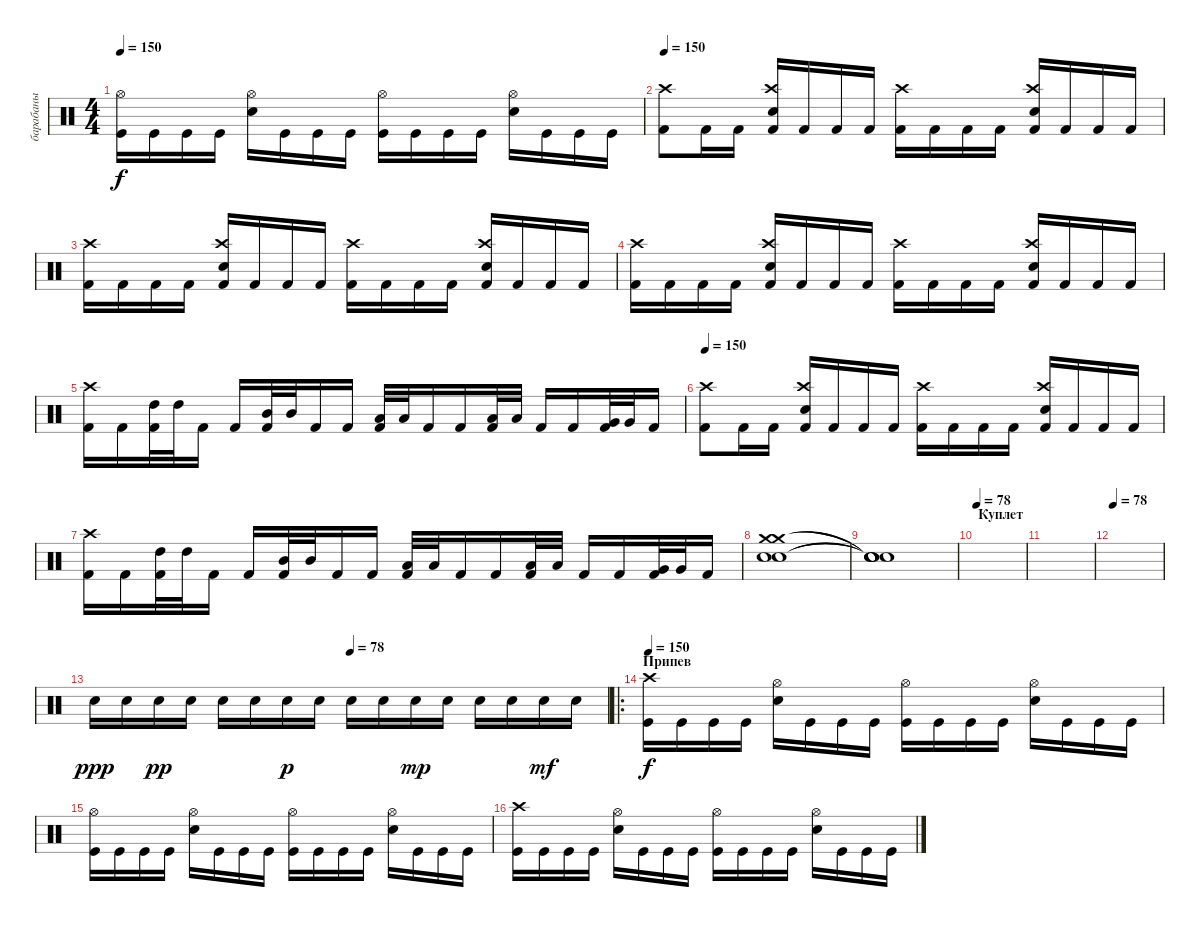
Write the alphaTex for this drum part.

\track ("барабаны" "барабаны") {instrument percussion}
\staff {score}
\articulation defaults
\ts (4 4)
\tempo 150
\clef neutral
\ks c
("Hi-Hat (open)" "Kick (hit)").16{dy f} "Kick (hit)".16 "Kick (hit)".16 "Kick (hit)".16 ("Hi-Hat (open)" "Electric Snare (hit)").16 "Kick (hit)".16 "Kick (hit)".16 "Kick (hit)".16 ("Hi-Hat (open)" "Kick (hit)").16 "Kick (hit)".16 "Kick (hit)".16 "Kick (hit)".16 ("Hi-Hat (open)" "Electric Snare (hit)").16 "Kick (hit)".16 "Kick (hit)".16 "Kick (hit)".16 |
\tempo 150
("Crash high (hit)" "Kick (hit) 2").8 "Kick (hit) 2".16 "Kick (hit) 2".16 ("Crash high (hit)" "Electric Snare (hit)" "Kick (hit) 2").16 "Kick (hit) 2".16 "Kick (hit) 2".16 "Kick (hit) 2".16 ("Crash high (hit)" "Kick (hit) 2").16 "Kick (hit) 2".16 "Kick (hit) 2".16 "Kick (hit) 2".16 ("Crash high (hit)" "Electric Snare (hit)" "Kick (hit) 2").16 "Kick (hit) 2".16 "Kick (hit) 2".16 "Kick (hit) 2".16 |
("Crash high (hit)" "Kick (hit) 2").16 "Kick (hit) 2".16 "Kick (hit) 2".16 "Kick (hit) 2".16 ("Crash high (hit)" "Electric Snare (hit)" "Kick (hit) 2").16 "Kick (hit) 2".16 "Kick (hit) 2".16 "Kick (hit) 2".16 ("Crash high (hit)" "Kick (hit) 2").16 "Kick (hit) 2".16 "Kick (hit) 2".16 "Kick (hit) 2".16 ("Crash high (hit)" "Electric Snare (hit)" "Kick (hit) 2").16 "Kick (hit) 2".16 "Kick (hit) 2".16 "Kick (hit) 2".16 |
("Crash high (hit)" "Kick (hit) 2").16 "Kick (hit) 2".16 "Kick (hit) 2".16 "Kick (hit) 2".16 ("Crash high (hit)" "Electric Snare (hit)" "Kick (hit) 2").16 "Kick (hit) 2".16 "Kick (hit) 2".16 "Kick (hit) 2".16 ("Crash high (hit)" "Kick (hit) 2").16 "Kick (hit) 2".16 "Kick (hit) 2".16 "Kick (hit) 2".16 ("Crash high (hit)" "Electric Snare (hit)" "Kick (hit) 2").16 "Kick (hit) 2".16 "Kick (hit) 2".16 "Kick (hit) 2".16 |
("Crash high (hit)" "Kick (hit) 2").16 "Kick (hit) 2".16 ("High Tom (hit)" "Kick (hit) 2").32 "High Tom (hit)".32 "Kick (hit) 2".16 "Kick (hit) 2".16 ("Mid Tom (hit)" "Kick (hit) 2").32 "Mid Tom (hit)".32 "Kick (hit) 2".16 "Kick (hit) 2".16 ("Low Tom (hit)" "Kick (hit) 2").32 "Low Tom (hit)".32 "Kick (hit) 2".16 "Kick (hit) 2".16 ("Low Tom (hit)" "Kick (hit) 2").32 "Low Tom (hit)".32 "Kick (hit) 2".16 "Kick (hit) 2".16 ("Very Low Tom (hit)" "Kick (hit) 2").32 "Very Low Tom (hit)".32 "Kick (hit) 2".16 |
\tempo 150
("Crash high (hit)" "Kick (hit) 2").8 "Kick (hit) 2".16 "Kick (hit) 2".16 ("Crash high (hit)" "Electric Snare (hit)" "Kick (hit) 2").16 "Kick (hit) 2".16 "Kick (hit) 2".16 "Kick (hit) 2".16 ("Crash high (hit)" "Kick (hit) 2").16 "Kick (hit) 2".16 "Kick (hit) 2".16 "Kick (hit) 2".16 ("Crash high (hit)" "Electric Snare (hit)" "Kick (hit) 2").16 "Kick (hit) 2".16 "Kick (hit) 2".16 "Kick (hit) 2".16 |
("Crash high (hit)" "Kick (hit) 2").16 "Kick (hit) 2".16 ("High Tom (hit)" "Kick (hit) 2").32 "High Tom (hit)".32 "Kick (hit) 2".16 "Kick (hit) 2".16 ("Mid Tom (hit)" "Kick (hit) 2").32 "Mid Tom (hit)".32 "Kick (hit) 2".16 "Kick (hit) 2".16 ("Low Tom (hit)" "Kick (hit) 2").32 "Low Tom (hit)".32 "Kick (hit) 2".16 "Kick (hit) 2".16 ("Low Tom (hit)" "Kick (hit) 2").32 "Low Tom (hit)".32 "Kick (hit) 2".16 "Kick (hit) 2".16 ("Very Low Tom (hit)" "Kick (hit) 2").32 "Very Low Tom (hit)".32 "Kick (hit) 2".16 |
("Snare (hit) 2" "Snare (hit) 2" "Crash medium (hit)" "Crash medium (hit)").1 |
("Snare (hit)"{t} "Snare (hit)"{t} "Snare (hit)"{t} "Snare (hit)"{t}).1 |
\section ("" "Куплет")
\tempo 78
|
|
\tempo 78
|
\tempo (78 0.5)
"Snare (hit) 2".16{dy ppp} "Snare (hit) 2".16 "Snare (hit) 2".16{dy pp} "Snare (hit) 2".16 "Snare (hit) 2".16 "Snare (hit) 2".16 "Snare (hit) 2".16{dy p} "Snare (hit) 2".16 "Snare (hit) 2".16 "Snare (hit) 2".16 "Snare (hit) 2".16{dy mp} "Snare (hit) 2".16 "Snare (hit) 2".16 "Snare (hit) 2".16 "Snare (hit) 2".16{dy mf} "Snare (hit) 2".16 |
\ro
\section ("" "Припев")
\tempo 150
("Crash high (hit)" "Kick (hit)").16{dy f} "Kick (hit)".16 "Kick (hit)".16 "Kick (hit)".16 ("Hi-Hat (open)" "Electric Snare (hit)").16 "Kick (hit)".16 "Kick (hit)".16 "Kick (hit)".16 ("Hi-Hat (open)" "Kick (hit)").16 "Kick (hit)".16 "Kick (hit)".16 "Kick (hit)".16 ("Hi-Hat (open)" "Electric Snare (hit)").16 "Kick (hit)".16 "Kick (hit)".16 "Kick (hit)".16 |
("Hi-Hat (open)" "Kick (hit)").16 "Kick (hit)".16 "Kick (hit)".16 "Kick (hit)".16 ("Hi-Hat (open)" "Electric Snare (hit)").16 "Kick (hit)".16 "Kick (hit)".16 "Kick (hit)".16 ("Hi-Hat (open)" "Kick (hit)").16 "Kick (hit)".16 "Kick (hit)".16 "Kick (hit)".16 ("Hi-Hat (open)" "Electric Snare (hit)").16 "Kick (hit)".16 "Kick (hit)".16 "Kick (hit)".16 |
("Crash high (hit)" "Kick (hit)").16 "Kick (hit)".16 "Kick (hit)".16 "Kick (hit)".16 ("Hi-Hat (open)" "Electric Snare (hit)").16 "Kick (hit)".16 "Kick (hit)".16 "Kick (hit)".16 ("Hi-Hat (open)" "Kick (hit)").16 "Kick (hit)".16 "Kick (hit)".16 "Kick (hit)".16 ("Hi-Hat (open)" "Electric Snare (hit)").16 "Kick (hit)".16 "Kick (hit)".16 "Kick (hit)".16
